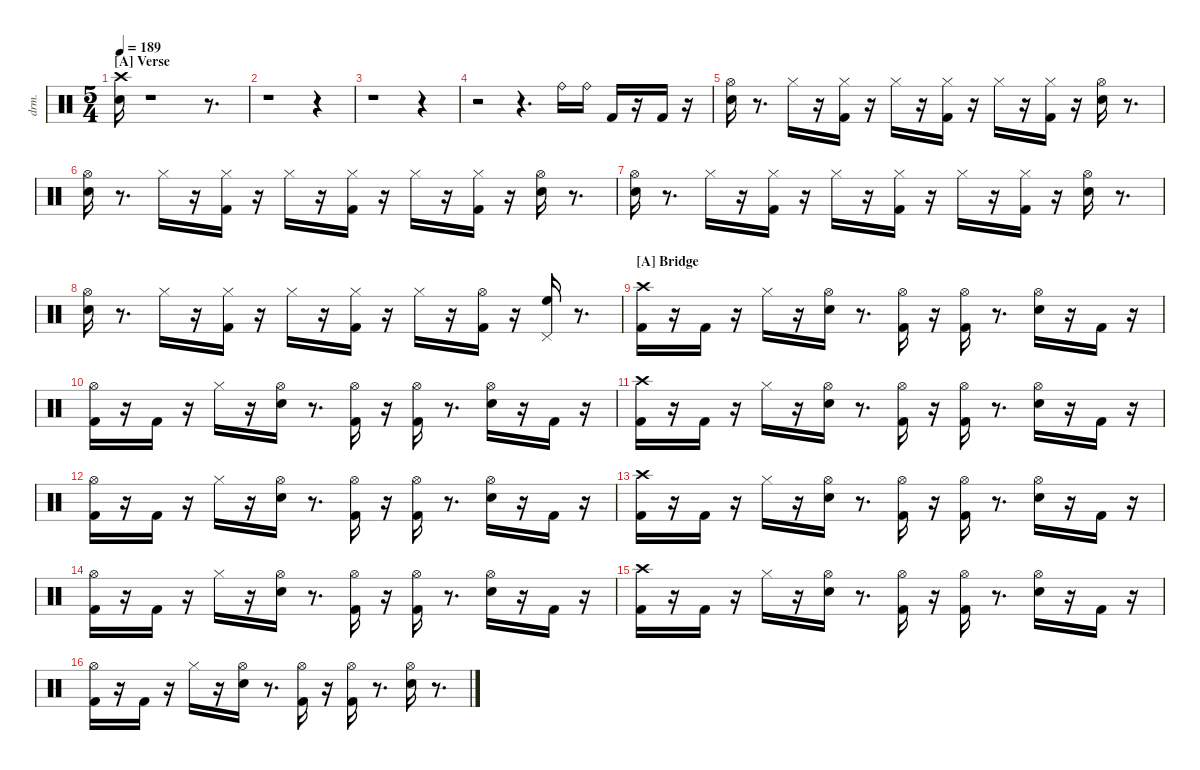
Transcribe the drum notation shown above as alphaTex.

\defaultSystemsLayout 4
\hideDynamics
\bracketExtendMode nobrackets
\track ("EZdrummer 3" "drm.") {instrument percussion}
\staff {score}
\articulation defaults
\ts (5 4)
\section ("A" "Verse")
\tempo 189
\clef neutral
\ks aminor
("Snare (hit) 2" "Crash high (hit)"{acc #}).16{dy fff} r.1 r.8{d} |
r.1 r.4 |
r.1 r.4 |
r.2 r.4{d} "Ride (bell)".16{dy ff} "Ride (bell)".16 "Kick (hit) 2".16{dy mf} r.16 "Kick (hit) 2".16{dy fff} r.16 |
("Snare (hit) 2" "Hi-Hat (open)"{acc #}).16{dy ff} r.8{d} "Hi-Hat (closed)"{acc #}.16 r.16 ("Kick (hit) 2" "Hi-Hat (closed)"{acc #}).16 r.16 "Hi-Hat (closed)"{acc #}.16 r.16 ("Kick (hit) 2" "Hi-Hat (closed)"{acc #}).16 r.16 "Hi-Hat (closed)"{acc #}.16 r.16 ("Kick (hit) 2" "Hi-Hat (closed)"{acc #}).16 r.16 ("Snare (hit) 2" "Hi-Hat (open)"{acc #}).16{dy f} r.8{d} |
("Snare (hit) 2" "Hi-Hat (open)"{acc #}).16{dy ff} r.8{d} "Hi-Hat (closed)"{acc #}.16 r.16 ("Kick (hit) 2" "Hi-Hat (closed)"{acc #}).16 r.16 "Hi-Hat (closed)"{acc #}.16 r.16 ("Kick (hit) 2" "Hi-Hat (closed)"{acc #}).16 r.16 "Hi-Hat (closed)"{acc #}.16 r.16 ("Kick (hit) 2" "Hi-Hat (closed)"{acc #}).16 r.16 ("Snare (hit) 2" "Hi-Hat (open)"{acc #}).16{dy f} r.8{d} |
("Snare (hit) 2" "Hi-Hat (open)"{acc #}).16{dy ff} r.8{d} "Hi-Hat (closed)"{acc #}.16 r.16 ("Kick (hit) 2" "Hi-Hat (closed)"{acc #}).16 r.16 "Hi-Hat (closed)"{acc #}.16 r.16 ("Kick (hit) 2" "Hi-Hat (closed)"{acc #}).16 r.16 "Hi-Hat (closed)"{acc #}.16 r.16 ("Kick (hit) 2" "Hi-Hat (closed)"{acc #}).16 r.16 ("Snare (hit) 2" "Hi-Hat (open)"{acc #}).16{dy f} r.8{d} |
("Snare (hit) 2" "Hi-Hat (open)"{acc #}).16{dy ff} r.8{d} "Hi-Hat (closed)"{acc #}.16 r.16 ("Kick (hit) 2" "Hi-Hat (closed)"{acc #}).16 r.16 "Hi-Hat (closed)"{acc #}.16 r.16 ("Kick (hit) 2" "Hi-Hat (closed)"{acc #}).16 r.16 "Hi-Hat (closed)"{acc #}.16 r.16 ("Kick (hit) 2" "Hi-Hat (open)"{acc #}).16 r.16 ("Pedal Hi-Hat (hit)"{acc #} "High Floor Tom (hit)").16 r.8{d} |
\section ("A" "Bridge")
("Kick (hit) 2" "Crash high (hit)"{acc #}).16{dy fff} r.16 "Kick (hit) 2".16{dy ff} r.16 "Hi-Hat (closed)"{acc #}.16 r.16 ("Snare (hit) 2" "Hi-Hat (open)"{acc #}).16{dy fff} r.8{d} ("Kick (hit) 2" "Hi-Hat (open)"{acc #}).16{dy mf} r.16 ("Kick (hit) 2" "Hi-Hat (open)"{acc #}).16{dy fff} r.8{d} ("Snare (hit) 2" "Hi-Hat (open)"{acc #}).16{dy ff} r.16 "Kick (hit) 2".16{dy mf} r.16 |
("Kick (hit) 2" "Hi-Hat (open)"{acc #}).16{dy fff} r.16 "Kick (hit) 2".16{dy mf} r.16 "Hi-Hat (closed)"{acc #}.16{dy ff} r.16 ("Snare (hit) 2" "Hi-Hat (open)"{acc #}).16{dy fff} r.8{d} ("Kick (hit) 2" "Hi-Hat (open)"{acc #}).16{dy ff} r.16 ("Kick (hit) 2" "Hi-Hat (open)"{acc #}).16 r.8{d} ("Snare (hit) 2" "Hi-Hat (open)"{acc #}).16 r.16 "Kick (hit) 2".16{dy f} r.16 |
("Kick (hit) 2" "Crash high (hit)"{acc #}).16{dy fff} r.16 "Kick (hit) 2".16{dy ff} r.16 "Hi-Hat (closed)"{acc #}.16 r.16 ("Snare (hit) 2" "Hi-Hat (open)"{acc #}).16{dy fff} r.8{d} ("Kick (hit) 2" "Hi-Hat (open)"{acc #}).16{dy mf} r.16 ("Kick (hit) 2" "Hi-Hat (open)"{acc #}).16{dy fff} r.8{d} ("Snare (hit) 2" "Hi-Hat (open)"{acc #}).16{dy ff} r.16 "Kick (hit) 2".16{dy mf} r.16 |
("Kick (hit) 2" "Hi-Hat (open)"{acc #}).16{dy fff} r.16 "Kick (hit) 2".16{dy mf} r.16 "Hi-Hat (closed)"{acc #}.16{dy ff} r.16 ("Snare (hit) 2" "Hi-Hat (open)"{acc #}).16{dy fff} r.8{d} ("Kick (hit) 2" "Hi-Hat (open)"{acc #}).16{dy ff} r.16 ("Kick (hit) 2" "Hi-Hat (open)"{acc #}).16 r.8{d} ("Snare (hit) 2" "Hi-Hat (open)"{acc #}).16 r.16 "Kick (hit) 2".16{dy f} r.16 |
("Kick (hit) 2" "Crash high (hit)"{acc #}).16{dy fff} r.16 "Kick (hit) 2".16{dy ff} r.16 "Hi-Hat (closed)"{acc #}.16 r.16 ("Snare (hit) 2" "Hi-Hat (open)"{acc #}).16{dy fff} r.8{d} ("Kick (hit) 2" "Hi-Hat (open)"{acc #}).16{dy mf} r.16 ("Kick (hit) 2" "Hi-Hat (open)"{acc #}).16{dy fff} r.8{d} ("Snare (hit) 2" "Hi-Hat (open)"{acc #}).16{dy ff} r.16 "Kick (hit) 2".16{dy mf} r.16 |
("Kick (hit) 2" "Hi-Hat (open)"{acc #}).16{dy fff} r.16 "Kick (hit) 2".16{dy mf} r.16 "Hi-Hat (closed)"{acc #}.16{dy ff} r.16 ("Snare (hit) 2" "Hi-Hat (open)"{acc #}).16{dy fff} r.8{d} ("Kick (hit) 2" "Hi-Hat (open)"{acc #}).16{dy ff} r.16 ("Kick (hit) 2" "Hi-Hat (open)"{acc #}).16 r.8{d} ("Snare (hit) 2" "Hi-Hat (open)"{acc #}).16 r.16 "Kick (hit) 2".16{dy f} r.16 |
("Kick (hit) 2" "Crash high (hit)"{acc #}).16{dy fff} r.16 "Kick (hit) 2".16{dy ff} r.16 "Hi-Hat (closed)"{acc #}.16 r.16 ("Snare (hit) 2" "Hi-Hat (open)"{acc #}).16{dy fff} r.8{d} ("Kick (hit) 2" "Hi-Hat (open)"{acc #}).16{dy mf} r.16 ("Kick (hit) 2" "Hi-Hat (open)"{acc #}).16{dy fff} r.8{d} ("Snare (hit) 2" "Hi-Hat (open)"{acc #}).16{dy ff} r.16 "Kick (hit) 2".16{dy mf} r.16 |
("Kick (hit) 2" "Hi-Hat (open)"{acc #}).16{dy fff} r.16 "Kick (hit) 2".16{dy mf} r.16 "Hi-Hat (closed)"{acc #}.16{dy ff} r.16 ("Snare (hit) 2" "Hi-Hat (open)"{acc #}).16{dy fff} r.8{d} ("Kick (hit) 2" "Hi-Hat (open)"{acc #}).16 r.16 ("Kick (hit) 2" "Hi-Hat (open)"{acc #}).16 r.8{d} ("Snare (hit) 2" "Hi-Hat (open)"{acc #}).16{dy ff} r.8{d}
